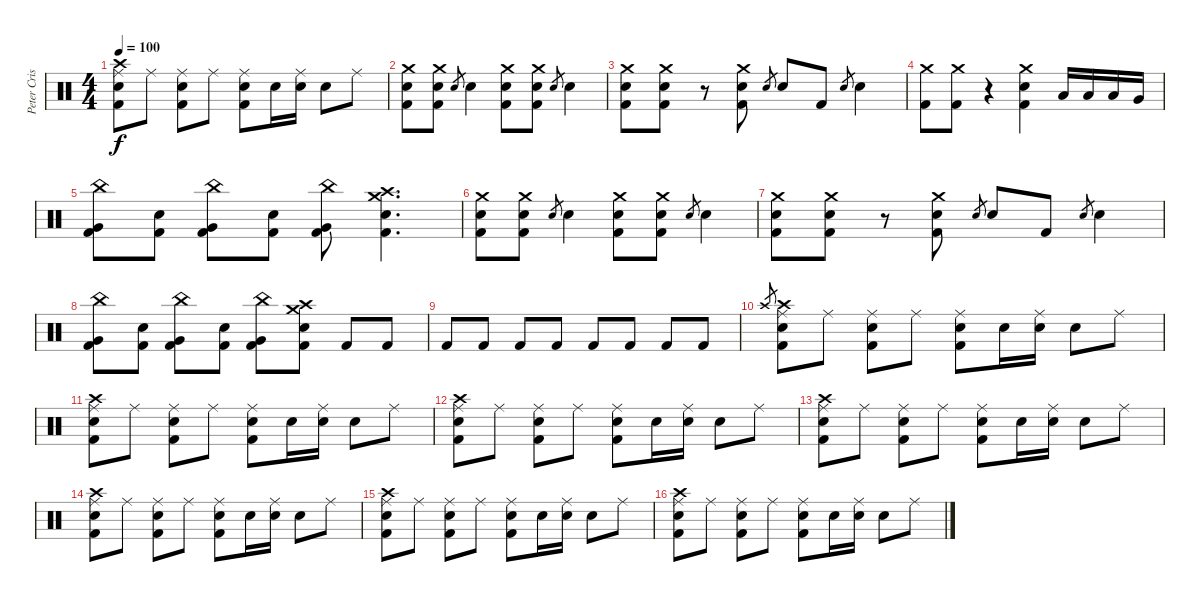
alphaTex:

\track ("Peter Criss" "Peter Cris") {instrument percussion}
\staff {score}
\articulation defaults
\ts (4 4)
\tempo 100
\clef neutral
\ks c
("Ride (middle)" "Crash high (hit)" "Snare (hit) 2" "Kick (hit) 2").8{dy f} "Ride (middle)".8 ("Ride (middle)" "Snare (hit) 2" "Kick (hit) 2").8 "Ride (middle)".8 ("Ride (middle)" "Snare (hit) 2" "Kick (hit) 2").8 "Snare (hit) 2".16 ("Ride (middle)" "Snare (hit) 2").16 "Snare (hit) 2".8 "Ride (middle)".8 |
("Crash medium (hit)" "Snare (hit) 2" "Kick (hit) 2").8 ("Crash medium (hit)" "Snare (hit) 2" "Kick (hit) 2").8 "Electric Snare (hit)".8{gr} "Electric Snare (hit)".4 ("Crash medium (hit)" "Snare (hit) 2" "Kick (hit) 2").8 ("Crash medium (hit)" "Snare (hit) 2" "Kick (hit) 2").8 "Electric Snare (hit)".8{gr} "Electric Snare (hit)".4 |
("Crash medium (hit)" "Snare (hit) 2" "Kick (hit) 2").8 ("Crash medium (hit)" "Snare (hit) 2" "Kick (hit) 2").8 r.8 ("Crash medium (hit)" "Snare (hit) 2" "Kick (hit) 2").8 "Electric Snare (hit)".8{gr} "Electric Snare (hit)".8 "Kick (hit) 2".8 "Electric Snare (hit)".8{gr} "Electric Snare (hit)".4 |
("Kick (hit) 2" "Crash medium (hit)").8 ("Kick (hit) 2" "Crash medium (hit)").8 r.4 ("Crash medium (hit)" "Snare (hit) 2" "Kick (hit) 2").4 "Low Tom (hit)".16 "Low Tom (hit)".16 "Low Tom (hit)".16 "Very Low Tom (hit)".16 |
("Very Low Tom (hit)" "China (hit)" "Kick (hit) 2").8 ("Kick (hit) 2" "Snare (hit) 2").8 ("Very Low Tom (hit)" "China (hit)" "Kick (hit) 2").8 ("Kick (hit) 2" "Snare (hit) 2").8 ("Very Low Tom (hit)" "China (hit)" "Kick (hit) 2").8 ("Crash medium (hit)" "Crash high (hit)" "Kick (hit) 2" "Snare (hit) 2").4{d} |
("Crash medium (hit)" "Snare (hit) 2" "Kick (hit) 2").8 ("Crash medium (hit)" "Snare (hit) 2" "Kick (hit) 2").8 "Electric Snare (hit)".8{gr} "Electric Snare (hit)".4 ("Crash medium (hit)" "Snare (hit) 2" "Kick (hit) 2").8 ("Crash medium (hit)" "Snare (hit) 2" "Kick (hit) 2").8 "Electric Snare (hit)".8{gr} "Electric Snare (hit)".4 |
("Crash medium (hit)" "Snare (hit) 2" "Kick (hit) 2").8 ("Crash medium (hit)" "Snare (hit) 2" "Kick (hit) 2").8 r.8 ("Crash medium (hit)" "Snare (hit) 2" "Kick (hit) 2").8 "Electric Snare (hit)".8{gr} "Electric Snare (hit)".8 "Kick (hit) 2".8 "Electric Snare (hit)".8{gr} "Electric Snare (hit)".4 |
("Very Low Tom (hit)" "China (hit)" "Kick (hit) 2").8 ("Kick (hit) 2" "Snare (hit) 2").8 ("Very Low Tom (hit)" "China (hit)" "Kick (hit) 2").8 ("Kick (hit) 2" "Snare (hit) 2").8 ("Very Low Tom (hit)" "China (hit)" "Kick (hit) 2").8 ("Crash medium (hit)" "Crash high (hit)" "Kick (hit) 2" "Snare (hit) 2").8 "Kick (hit) 2".8 "Kick (hit) 2".8 |
"Kick (hit) 2".8 "Kick (hit) 2".8 "Kick (hit) 2".8 "Kick (hit) 2".8 "Kick (hit) 2".8 "Kick (hit) 2".8 "Kick (hit) 2".8 "Kick (hit) 2".8 |
"Crash high (hit)".8{gr} ("Ride (middle)" "Crash high (hit)" "Snare (hit) 2" "Kick (hit) 2").8 "Ride (middle)".8 ("Ride (middle)" "Snare (hit) 2" "Kick (hit) 2").8 "Ride (middle)".8 ("Ride (middle)" "Snare (hit) 2" "Kick (hit) 2").8 "Snare (hit) 2".16 ("Ride (middle)" "Snare (hit) 2").16 "Snare (hit) 2".8 "Ride (middle)".8 |
("Ride (middle)" "Crash high (hit)" "Snare (hit) 2" "Kick (hit) 2").8 "Ride (middle)".8 ("Ride (middle)" "Snare (hit) 2" "Kick (hit) 2").8 "Ride (middle)".8 ("Ride (middle)" "Snare (hit) 2" "Kick (hit) 2").8 "Snare (hit) 2".16 ("Ride (middle)" "Snare (hit) 2").16 "Snare (hit) 2".8 "Ride (middle)".8 |
("Ride (middle)" "Crash high (hit)" "Snare (hit) 2" "Kick (hit) 2").8 "Ride (middle)".8 ("Ride (middle)" "Snare (hit) 2" "Kick (hit) 2").8 "Ride (middle)".8 ("Ride (middle)" "Snare (hit) 2" "Kick (hit) 2").8 "Snare (hit) 2".16 ("Ride (middle)" "Snare (hit) 2").16 "Snare (hit) 2".8 "Ride (middle)".8 |
("Ride (middle)" "Crash high (hit)" "Snare (hit) 2" "Kick (hit) 2").8 "Ride (middle)".8 ("Ride (middle)" "Snare (hit) 2" "Kick (hit) 2").8 "Ride (middle)".8 ("Ride (middle)" "Snare (hit) 2" "Kick (hit) 2").8 "Snare (hit) 2".16 ("Ride (middle)" "Snare (hit) 2").16 "Snare (hit) 2".8 "Ride (middle)".8 |
("Ride (middle)" "Crash high (hit)" "Snare (hit) 2" "Kick (hit) 2").8 "Ride (middle)".8 ("Ride (middle)" "Snare (hit) 2" "Kick (hit) 2").8 "Ride (middle)".8 ("Ride (middle)" "Snare (hit) 2" "Kick (hit) 2").8 "Snare (hit) 2".16 ("Ride (middle)" "Snare (hit) 2").16 "Snare (hit) 2".8 "Ride (middle)".8 |
("Ride (middle)" "Crash high (hit)" "Snare (hit) 2" "Kick (hit) 2").8 "Ride (middle)".8 ("Ride (middle)" "Snare (hit) 2" "Kick (hit) 2").8 "Ride (middle)".8 ("Ride (middle)" "Snare (hit) 2" "Kick (hit) 2").8 "Snare (hit) 2".16 ("Ride (middle)" "Snare (hit) 2").16 "Snare (hit) 2".8 "Ride (middle)".8 |
("Ride (middle)" "Crash high (hit)" "Snare (hit) 2" "Kick (hit) 2").8 "Ride (middle)".8 ("Ride (middle)" "Snare (hit) 2" "Kick (hit) 2").8 "Ride (middle)".8 ("Ride (middle)" "Snare (hit) 2" "Kick (hit) 2").8 "Snare (hit) 2".16 ("Ride (middle)" "Snare (hit) 2").16 "Snare (hit) 2".8 "Ride (middle)".8
